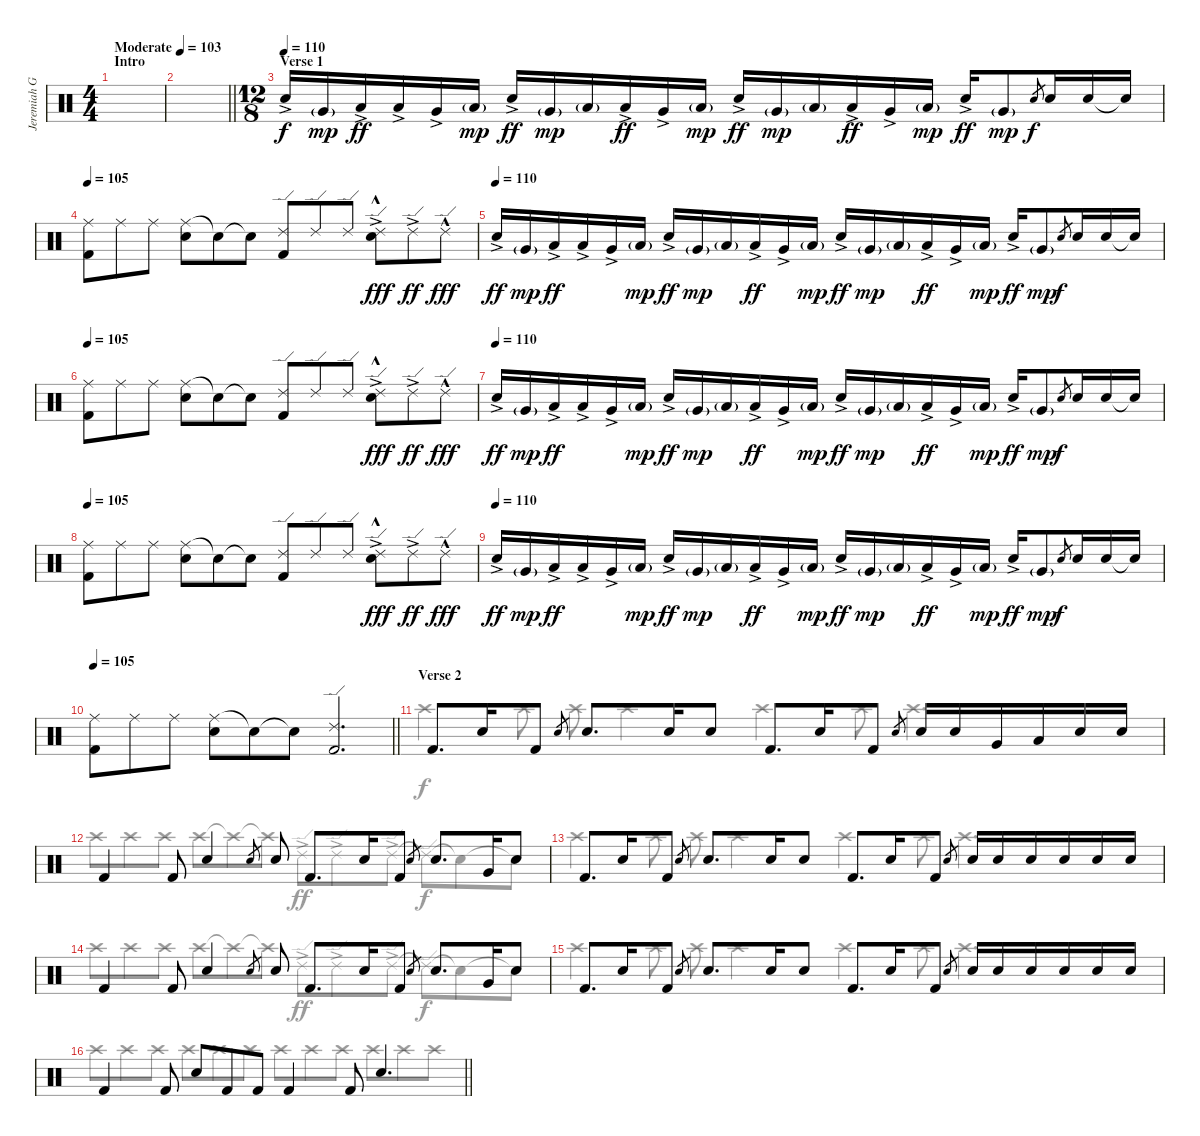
\track ("Jeremiah Green" "Jeremiah G") {instrument percussion}
\staff {score}
\articulation defaults
\voice
\ts (4 4)
\section ("" "Intro")
\tempo (103 "Moderate")
\tempo 90
\tempo (103 "Moderate")
\clef neutral
\ks c
|
\barLineRight lightlight
|
\ts (12 8)
\section ("" "Verse 1")
\tempo (110)
"Snare (hit) 2"{ac}.16 "Very Low Tom (hit)"{g}.16{dy mp} "Low Floor Tom (hit)"{ac}.16{dy ff} "Low Tom (hit)"{ac}.16 "Very Low Tom (hit)"{ac}.16 "Low Floor Tom (hit)"{g}.16{dy mp} "Snare (hit) 2"{ac}.16{dy ff} "Very Low Tom (hit)"{g}.16{dy mp} "Low Floor Tom (hit)"{g}.16 "Low Tom (hit)"{ac}.16{dy ff} "Very Low Tom (hit)"{ac}.16 "Low Floor Tom (hit)"{g}.16{dy mp} "Snare (hit) 2"{ac}.16{dy ff} "Very Low Tom (hit)"{g}.16{dy mp} "Low Floor Tom (hit)"{g}.16 "Low Tom (hit)"{ac}.16{dy ff} "Very Low Tom (hit)"{ac}.16 "Low Floor Tom (hit)"{g}.16{dy mp} "Snare (hit) 2"{ac}.16{dy ff} "Very Low Tom (hit)"{g}.8{dy mp} "Snare (hit) 2".8{gr dy f} "Snare (hit) 2".16 "Snare (hit) 2".16 "Snare (hit)"{t}.16 |
\tempo 105
("Ride (middle)" "Kick (hit) 2").8 "Ride (middle)".8 "Ride (middle)".8 ("Ride (middle)" "Snare (hit) 2").8 "Snare (hit)"{t}.8 "Snare (hit)"{t}.8 ("Ride (edge) 2" "Kick (hit) 2").8 "Ride (edge) 2".8 "Ride (edge) 2".8 ("Ride (edge) 2"{ac} "Snare (hit) 2"{hac}).8{dy fff} "Ride (edge) 2"{ac}.8{dy ff} "Ride (edge) 2"{hac}.8{dy fff} |
\tempo (110)
"Snare (hit) 2"{ac}.16{dy ff} "Very Low Tom (hit)"{g}.16{dy mp} "Low Floor Tom (hit)"{ac}.16{dy ff} "Low Tom (hit)"{ac}.16 "Very Low Tom (hit)"{ac}.16 "Low Floor Tom (hit)"{g}.16{dy mp} "Snare (hit) 2"{ac}.16{dy ff} "Very Low Tom (hit)"{g}.16{dy mp} "Low Floor Tom (hit)"{g}.16 "Low Tom (hit)"{ac}.16{dy ff} "Very Low Tom (hit)"{ac}.16 "Low Floor Tom (hit)"{g}.16{dy mp} "Snare (hit) 2"{ac}.16{dy ff} "Very Low Tom (hit)"{g}.16{dy mp} "Low Floor Tom (hit)"{g}.16 "Low Tom (hit)"{ac}.16{dy ff} "Very Low Tom (hit)"{ac}.16 "Low Floor Tom (hit)"{g}.16{dy mp} "Snare (hit) 2"{ac}.16{dy ff} "Very Low Tom (hit)"{g}.8{dy mp} "Snare (hit) 2".8{gr dy f} "Snare (hit) 2".16 "Snare (hit) 2".16 "Snare (hit)"{t}.16 |
\tempo 105
("Ride (middle)" "Kick (hit) 2").8 "Ride (middle)".8 "Ride (middle)".8 ("Ride (middle)" "Snare (hit) 2").8 "Snare (hit)"{t}.8 "Snare (hit)"{t}.8 ("Ride (edge) 2" "Kick (hit) 2").8 "Ride (edge) 2".8 "Ride (edge) 2".8 ("Ride (edge) 2"{ac} "Snare (hit) 2"{hac}).8{dy fff} "Ride (edge) 2"{ac}.8{dy ff} "Ride (edge) 2"{hac}.8{dy fff} |
\tempo (110)
"Snare (hit) 2"{ac}.16{dy ff} "Very Low Tom (hit)"{g}.16{dy mp} "Low Floor Tom (hit)"{ac}.16{dy ff} "Low Tom (hit)"{ac}.16 "Very Low Tom (hit)"{ac}.16 "Low Floor Tom (hit)"{g}.16{dy mp} "Snare (hit) 2"{ac}.16{dy ff} "Very Low Tom (hit)"{g}.16{dy mp} "Low Floor Tom (hit)"{g}.16 "Low Tom (hit)"{ac}.16{dy ff} "Very Low Tom (hit)"{ac}.16 "Low Floor Tom (hit)"{g}.16{dy mp} "Snare (hit) 2"{ac}.16{dy ff} "Very Low Tom (hit)"{g}.16{dy mp} "Low Floor Tom (hit)"{g}.16 "Low Tom (hit)"{ac}.16{dy ff} "Very Low Tom (hit)"{ac}.16 "Low Floor Tom (hit)"{g}.16{dy mp} "Snare (hit) 2"{ac}.16{dy ff} "Very Low Tom (hit)"{g}.8{dy mp} "Snare (hit) 2".8{gr dy f} "Snare (hit) 2".16 "Snare (hit) 2".16 "Snare (hit)"{t}.16 |
\tempo 105
("Ride (middle)" "Kick (hit) 2").8 "Ride (middle)".8 "Ride (middle)".8 ("Ride (middle)" "Snare (hit) 2").8 "Snare (hit)"{t}.8 "Snare (hit)"{t}.8 ("Ride (edge) 2" "Kick (hit) 2").8 "Ride (edge) 2".8 "Ride (edge) 2".8 ("Ride (edge) 2"{ac} "Snare (hit) 2"{hac}).8{dy fff} "Ride (edge) 2"{ac}.8{dy ff} "Ride (edge) 2"{hac}.8{dy fff} |
\tempo (110)
"Snare (hit) 2"{ac}.16{dy ff} "Very Low Tom (hit)"{g}.16{dy mp} "Low Floor Tom (hit)"{ac}.16{dy ff} "Low Tom (hit)"{ac}.16 "Very Low Tom (hit)"{ac}.16 "Low Floor Tom (hit)"{g}.16{dy mp} "Snare (hit) 2"{ac}.16{dy ff} "Very Low Tom (hit)"{g}.16{dy mp} "Low Floor Tom (hit)"{g}.16 "Low Tom (hit)"{ac}.16{dy ff} "Very Low Tom (hit)"{ac}.16 "Low Floor Tom (hit)"{g}.16{dy mp} "Snare (hit) 2"{ac}.16{dy ff} "Very Low Tom (hit)"{g}.16{dy mp} "Low Floor Tom (hit)"{g}.16 "Low Tom (hit)"{ac}.16{dy ff} "Very Low Tom (hit)"{ac}.16 "Low Floor Tom (hit)"{g}.16{dy mp} "Snare (hit) 2"{ac}.16{dy ff} "Very Low Tom (hit)"{g}.8{dy mp} "Snare (hit) 2".8{gr dy f} "Snare (hit) 2".16 "Snare (hit) 2".16 "Snare (hit)"{t}.16 |
\tempo 105
\barLineRight lightlight
("Ride (middle)" "Kick (hit) 2").8 "Ride (middle)".8 "Ride (middle)".8 ("Ride (middle)" "Snare (hit) 2").8 "Snare (hit)"{t}.8 "Snare (hit)"{t}.8 ("Ride (edge) 2" "Kick (hit) 2").2{d} |
\section ("" "Verse 2")
"Kick (hit) 2".8{d} "Snare (hit) 2".16 "Kick (hit) 2".8 "Snare (hit) 2".8{gr} "Snare (hit) 2".8{d} "Snare (hit) 2".16 "Snare (hit) 2".8 "Kick (hit) 2".8{d} "Snare (hit) 2".16 "Kick (hit) 2".8 "Snare (hit) 2".8{gr} "Snare (hit) 2".16 "Snare (hit) 2".16 "Very Low Tom (hit)".16 "Low Tom (hit)".16 "Snare (hit) 2".16 "Snare (hit) 2".16 |
"Kick (hit) 2".4 "Kick (hit) 2".8 "Snare (hit) 2".4 "Snare (hit) 2".8{gr} "Snare (hit) 2".8 "Kick (hit) 2".8{d} "Snare (hit) 2".16 "Kick (hit) 2".8 "Snare (hit) 2".8{gr} "Snare (hit) 2".8{d} "Very Low Tom (hit)".16 "Snare (hit) 2".8 |
"Kick (hit) 2".8{d} "Snare (hit) 2".16 "Kick (hit) 2".8 "Snare (hit) 2".8{gr} "Snare (hit) 2".8{d} "Snare (hit) 2".16 "Snare (hit) 2".8 "Kick (hit) 2".8{d} "Snare (hit) 2".16 "Kick (hit) 2".8 "Snare (hit) 2".8{gr} "Snare (hit) 2".16 "Snare (hit) 2".16 "Snare (hit) 2".16 "Snare (hit) 2".16 "Snare (hit) 2".16 "Snare (hit) 2".16 |
"Kick (hit) 2".4 "Kick (hit) 2".8 "Snare (hit) 2".4 "Snare (hit) 2".8{gr} "Snare (hit) 2".8 "Kick (hit) 2".8{d} "Snare (hit) 2".16 "Kick (hit) 2".8 "Snare (hit) 2".8{gr} "Snare (hit) 2".8{d} "Very Low Tom (hit)".16 "Snare (hit) 2".8 |
"Kick (hit) 2".8{d} "Snare (hit) 2".16 "Kick (hit) 2".8 "Snare (hit) 2".8{gr} "Snare (hit) 2".8{d} "Snare (hit) 2".16 "Snare (hit) 2".8 "Kick (hit) 2".8{d} "Snare (hit) 2".16 "Kick (hit) 2".8 "Snare (hit) 2".8{gr} "Snare (hit) 2".16 "Snare (hit) 2".16 "Snare (hit) 2".16 "Snare (hit) 2".16 "Snare (hit) 2".16 "Snare (hit) 2".16 |
\barLineRight lightlight "Kick (hit) 2".4 "Kick (hit) 2".8 "Snare (hit) 2".8 "Kick (hit) 2".8 "Kick (hit) 2".8 "Kick (hit) 2".4 "Kick (hit) 2".8 "Snare (hit) 2".4{d}
\voice
\clef neutral
\ottava regular
\simile none
\ks c
|
\barLineRight lightlight
|
|
|
|
|
|
|
|
\barLineRight lightlight
|
"Crash high (hit)".4 "Crash high (hit)".8 "Crash high (hit)".8 "Crash high (hit)".4 "Crash high (hit)".4 "Crash high (hit)".8 "Crash high (hit)".4{d} |
"Crash high (hit)".8 "Crash high (hit)".8 "Crash high (hit)".8 "Crash high (hit)".8 "Crash high (hit)"{t}.8 "Crash high (hit)"{t}.8 "Ride (edge) 2"{ac}.8{dy ff} "Ride (edge) 2"{ac}.8 "Ride (edge) 2"{ac}.8 "Ride (edge) 2"{t}.8{dy f} "Snare (hit)"{t}.8 "Snare (hit)"{t}.8 |
"Crash high (hit)".4 "Crash high (hit)".8 "Crash high (hit)".8 "Crash high (hit)".4 "Crash high (hit)".4 "Crash high (hit)".8 "Crash high (hit)".4{d} |
"Crash high (hit)".8 "Crash high (hit)".8 "Crash high (hit)".8 "Crash high (hit)".8 "Crash high (hit)"{t}.8 "Crash high (hit)"{t}.8 "Ride (edge) 2"{ac}.8{dy ff} "Ride (edge) 2"{ac}.8 "Ride (edge) 2"{ac}.8 "Ride (edge) 2"{t}.8{dy f} "Snare (hit)"{t}.8 "Snare (hit)"{t}.8 |
"Crash high (hit)".4 "Crash high (hit)".8 "Crash high (hit)".8 "Crash high (hit)".4 "Crash high (hit)".4 "Crash high (hit)".8 "Crash high (hit)".4{d} |
\barLineRight lightlight "Crash high (hit)".8 "Crash high (hit)".8 "Crash high (hit)".8 "Crash high (hit)".8 "Crash high (hit)".8 "Crash high (hit)".8 "Crash high (hit)".8 "Crash high (hit)".8 "Crash high (hit)".8 "Crash high (hit)".8 "Crash high (hit)".8 "Crash high (hit)".8
